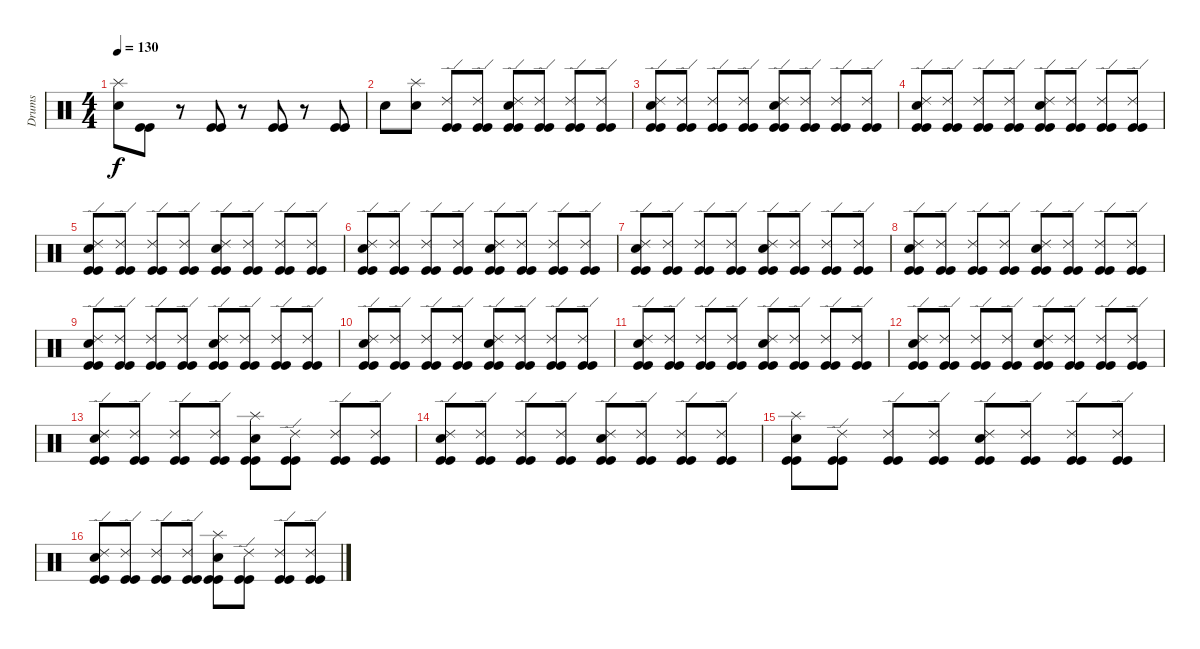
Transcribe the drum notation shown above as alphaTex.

\track ("Drums" "Drums") {instrument percussion}
\staff {score}
\articulation defaults
\ts (4 4)
\tempo 130
\clef neutral
\ks c
("Splash (hit)" "Snare (hit) 2").8{dy f} ("Kick (hit)" "Kick (hit)").8 r.8 ("Kick (hit)" "Kick (hit)").8 r.8 ("Kick (hit)" "Kick (hit)").8 r.8 ("Kick (hit)" "Kick (hit)").8 |
"Snare (hit) 2".8 ("Splash (hit)" "Snare (hit) 2").8 ("Ride (edge) 2" "Kick (hit)" "Kick (hit)").8 ("Ride (edge) 2" "Kick (hit)" "Kick (hit)").8 ("Ride (edge) 2" "Snare (hit) 2" "Kick (hit)" "Kick (hit)").8 ("Ride (edge) 2" "Kick (hit)" "Kick (hit)").8 ("Ride (edge) 2" "Kick (hit)" "Kick (hit)").8 ("Ride (edge) 2" "Kick (hit)" "Kick (hit)").8 |
("Ride (edge) 2" "Snare (hit) 2" "Kick (hit)" "Kick (hit)").8 ("Ride (edge) 2" "Kick (hit)" "Kick (hit)").8 ("Ride (edge) 2" "Kick (hit)" "Kick (hit)").8 ("Ride (edge) 2" "Kick (hit)" "Kick (hit)").8 ("Ride (edge) 2" "Snare (hit) 2" "Kick (hit)" "Kick (hit)").8 ("Ride (edge) 2" "Kick (hit)" "Kick (hit)").8 ("Ride (edge) 2" "Kick (hit)" "Kick (hit)").8 ("Ride (edge) 2" "Kick (hit)" "Kick (hit)").8 |
("Ride (edge) 2" "Snare (hit) 2" "Kick (hit)" "Kick (hit)").8 ("Ride (edge) 2" "Kick (hit)" "Kick (hit)").8 ("Ride (edge) 2" "Kick (hit)" "Kick (hit)").8 ("Ride (edge) 2" "Kick (hit)" "Kick (hit)").8 ("Ride (edge) 2" "Snare (hit) 2" "Kick (hit)" "Kick (hit)").8 ("Ride (edge) 2" "Kick (hit)" "Kick (hit)").8 ("Ride (edge) 2" "Kick (hit)" "Kick (hit)").8 ("Ride (edge) 2" "Kick (hit)" "Kick (hit)").8 |
("Ride (edge) 2" "Snare (hit) 2" "Kick (hit)" "Kick (hit)").8 ("Ride (edge) 2" "Kick (hit)" "Kick (hit)").8 ("Ride (edge) 2" "Kick (hit)" "Kick (hit)").8 ("Ride (edge) 2" "Kick (hit)" "Kick (hit)").8 ("Ride (edge) 2" "Snare (hit) 2" "Kick (hit)" "Kick (hit)").8 ("Ride (edge) 2" "Kick (hit)" "Kick (hit)").8 ("Ride (edge) 2" "Kick (hit)" "Kick (hit)").8 ("Ride (edge) 2" "Kick (hit)" "Kick (hit)").8 |
("Ride (edge) 2" "Snare (hit) 2" "Kick (hit)" "Kick (hit)").8 ("Ride (edge) 2" "Kick (hit)" "Kick (hit)").8 ("Ride (edge) 2" "Kick (hit)" "Kick (hit)").8 ("Ride (edge) 2" "Kick (hit)" "Kick (hit)").8 ("Ride (edge) 2" "Snare (hit) 2" "Kick (hit)" "Kick (hit)").8 ("Ride (edge) 2" "Kick (hit)" "Kick (hit)").8 ("Ride (edge) 2" "Kick (hit)" "Kick (hit)").8 ("Ride (edge) 2" "Kick (hit)" "Kick (hit)").8 |
("Ride (edge) 2" "Snare (hit) 2" "Kick (hit)" "Kick (hit)").8 ("Ride (edge) 2" "Kick (hit)" "Kick (hit)").8 ("Ride (edge) 2" "Kick (hit)" "Kick (hit)").8 ("Ride (edge) 2" "Kick (hit)" "Kick (hit)").8 ("Ride (edge) 2" "Snare (hit) 2" "Kick (hit)" "Kick (hit)").8 ("Ride (edge) 2" "Kick (hit)" "Kick (hit)").8 ("Ride (edge) 2" "Kick (hit)" "Kick (hit)").8 ("Ride (edge) 2" "Kick (hit)" "Kick (hit)").8 |
("Ride (edge) 2" "Snare (hit) 2" "Kick (hit)" "Kick (hit)").8 ("Ride (edge) 2" "Kick (hit)" "Kick (hit)").8 ("Ride (edge) 2" "Kick (hit)" "Kick (hit)").8 ("Ride (edge) 2" "Kick (hit)" "Kick (hit)").8 ("Ride (edge) 2" "Snare (hit) 2" "Kick (hit)" "Kick (hit)").8 ("Ride (edge) 2" "Kick (hit)" "Kick (hit)").8 ("Ride (edge) 2" "Kick (hit)" "Kick (hit)").8 ("Ride (edge) 2" "Kick (hit)" "Kick (hit)").8 |
("Ride (edge) 2" "Snare (hit) 2" "Kick (hit)" "Kick (hit)").8 ("Ride (edge) 2" "Kick (hit)" "Kick (hit)").8 ("Ride (edge) 2" "Kick (hit)" "Kick (hit)").8 ("Ride (edge) 2" "Kick (hit)" "Kick (hit)").8 ("Ride (edge) 2" "Snare (hit) 2" "Kick (hit)" "Kick (hit)").8 ("Ride (edge) 2" "Kick (hit)" "Kick (hit)").8 ("Ride (edge) 2" "Kick (hit)" "Kick (hit)").8 ("Ride (edge) 2" "Kick (hit)" "Kick (hit)").8 |
("Ride (edge) 2" "Snare (hit) 2" "Kick (hit)" "Kick (hit)").8 ("Ride (edge) 2" "Kick (hit)" "Kick (hit)").8 ("Ride (edge) 2" "Kick (hit)" "Kick (hit)").8 ("Ride (edge) 2" "Kick (hit)" "Kick (hit)").8 ("Ride (edge) 2" "Snare (hit) 2" "Kick (hit)" "Kick (hit)").8 ("Ride (edge) 2" "Kick (hit)" "Kick (hit)").8 ("Ride (edge) 2" "Kick (hit)" "Kick (hit)").8 ("Ride (edge) 2" "Kick (hit)" "Kick (hit)").8 |
("Ride (edge) 2" "Snare (hit) 2" "Kick (hit)" "Kick (hit)").8 ("Ride (edge) 2" "Kick (hit)" "Kick (hit)").8 ("Ride (edge) 2" "Kick (hit)" "Kick (hit)").8 ("Ride (edge) 2" "Kick (hit)" "Kick (hit)").8 ("Ride (edge) 2" "Snare (hit) 2" "Kick (hit)" "Kick (hit)").8 ("Ride (edge) 2" "Kick (hit)" "Kick (hit)").8 ("Ride (edge) 2" "Kick (hit)" "Kick (hit)").8 ("Ride (edge) 2" "Kick (hit)" "Kick (hit)").8 |
("Ride (edge) 2" "Snare (hit) 2" "Kick (hit)" "Kick (hit)").8 ("Ride (edge) 2" "Kick (hit)" "Kick (hit)").8 ("Ride (edge) 2" "Kick (hit)" "Kick (hit)").8 ("Ride (edge) 2" "Kick (hit)" "Kick (hit)").8 ("Ride (edge) 2" "Snare (hit) 2" "Kick (hit)" "Kick (hit)").8 ("Ride (edge) 2" "Kick (hit)" "Kick (hit)").8 ("Ride (edge) 2" "Kick (hit)" "Kick (hit)").8 ("Ride (edge) 2" "Kick (hit)" "Kick (hit)").8 |
("Ride (edge) 2" "Snare (hit) 2" "Kick (hit)" "Kick (hit)").8 ("Ride (edge) 2" "Kick (hit)" "Kick (hit)").8 ("Ride (edge) 2" "Kick (hit)" "Kick (hit)").8 ("Ride (edge) 2" "Kick (hit)" "Kick (hit)").8 ("Splash (hit)" "Snare (hit) 2" "Kick (hit)" "Kick (hit)").8 ("Ride (edge) 2" "Kick (hit)" "Kick (hit)").8 ("Ride (edge) 2" "Kick (hit)" "Kick (hit)").8 ("Ride (edge) 2" "Kick (hit)" "Kick (hit)").8 |
("Ride (edge) 2" "Snare (hit) 2" "Kick (hit)" "Kick (hit)").8 ("Ride (edge) 2" "Kick (hit)" "Kick (hit)").8 ("Ride (edge) 2" "Kick (hit)" "Kick (hit)").8 ("Ride (edge) 2" "Kick (hit)" "Kick (hit)").8 ("Ride (edge) 2" "Snare (hit) 2" "Kick (hit)" "Kick (hit)").8 ("Ride (edge) 2" "Kick (hit)" "Kick (hit)").8 ("Ride (edge) 2" "Kick (hit)" "Kick (hit)").8 ("Ride (edge) 2" "Kick (hit)" "Kick (hit)").8 |
("Splash (hit)" "Snare (hit) 2" "Kick (hit)" "Kick (hit)").8 ("Ride (edge) 2" "Kick (hit)" "Kick (hit)").8 ("Ride (edge) 2" "Kick (hit)" "Kick (hit)").8 ("Ride (edge) 2" "Kick (hit)" "Kick (hit)").8 ("Ride (edge) 2" "Snare (hit) 2" "Kick (hit)" "Kick (hit)").8 ("Ride (edge) 2" "Kick (hit)" "Kick (hit)").8 ("Ride (edge) 2" "Kick (hit)" "Kick (hit)").8 ("Ride (edge) 2" "Kick (hit)" "Kick (hit)").8 |
("Ride (edge) 2" "Snare (hit) 2" "Kick (hit)" "Kick (hit)").8 ("Ride (edge) 2" "Kick (hit)" "Kick (hit)").8 ("Ride (edge) 2" "Kick (hit)" "Kick (hit)").8 ("Ride (edge) 2" "Kick (hit)" "Kick (hit)").8 ("Splash (hit)" "Snare (hit) 2" "Kick (hit)" "Kick (hit)").8 ("Ride (edge) 2" "Kick (hit)" "Kick (hit)").8 ("Ride (edge) 2" "Kick (hit)" "Kick (hit)").8 ("Ride (edge) 2" "Kick (hit)" "Kick (hit)").8
